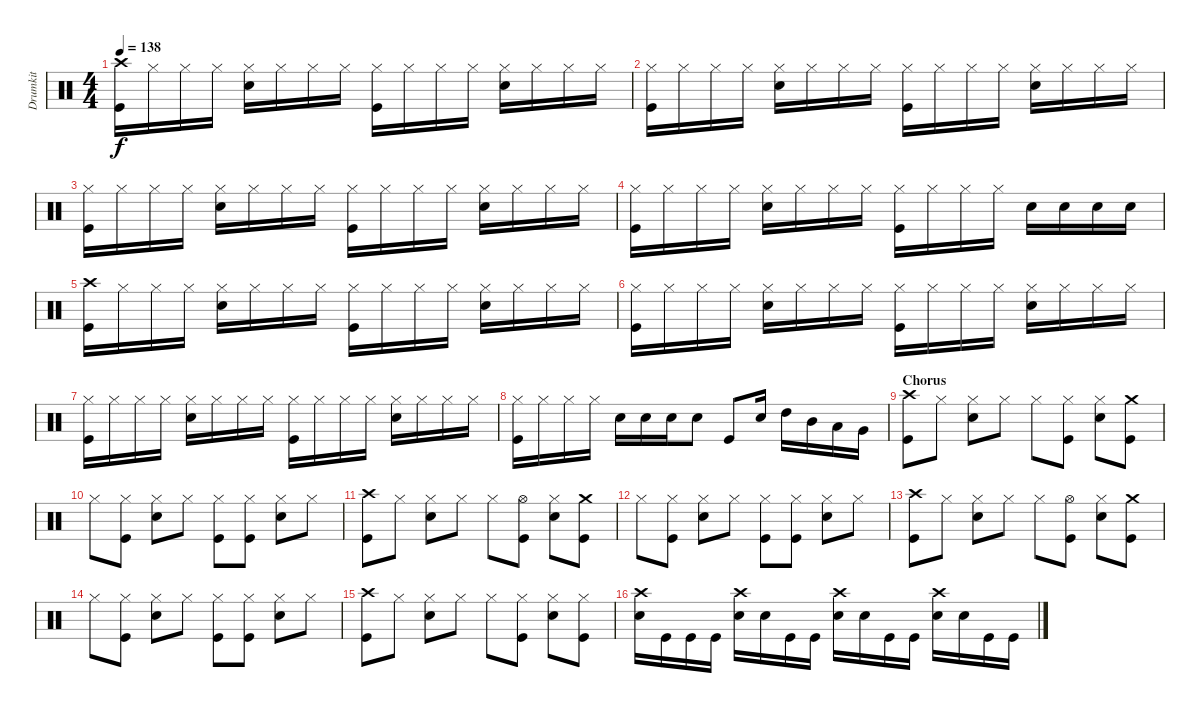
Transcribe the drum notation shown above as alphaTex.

\track ("Drumkit" "Drumkit") {instrument percussion}
\staff {score}
\articulation defaults
\ts (4 4)
\tempo 138
\clef neutral
\ks c
("Kick (hit)" "Crash high (hit)").16{dy f} "Hi-Hat (closed)".16 "Hi-Hat (closed)".16 "Hi-Hat (closed)".16 ("Snare (hit) 2" "Hi-Hat (closed)").16 "Hi-Hat (closed)".16 "Hi-Hat (closed)".16 "Hi-Hat (closed)".16 ("Kick (hit)" "Hi-Hat (closed)").16 "Hi-Hat (closed)".16 "Hi-Hat (closed)".16 "Hi-Hat (closed)".16 ("Snare (hit) 2" "Hi-Hat (closed)").16 "Hi-Hat (closed)".16 "Hi-Hat (closed)".16 "Hi-Hat (closed)".16 |
("Kick (hit)" "Hi-Hat (closed)").16 "Hi-Hat (closed)".16 "Hi-Hat (closed)".16 "Hi-Hat (closed)".16 ("Snare (hit) 2" "Hi-Hat (closed)").16 "Hi-Hat (closed)".16 "Hi-Hat (closed)".16 "Hi-Hat (closed)".16 ("Kick (hit)" "Hi-Hat (closed)").16 "Hi-Hat (closed)".16 "Hi-Hat (closed)".16 "Hi-Hat (closed)".16 ("Snare (hit) 2" "Hi-Hat (closed)").16 "Hi-Hat (closed)".16 "Hi-Hat (closed)".16 "Hi-Hat (closed)".16 |
("Kick (hit)" "Hi-Hat (closed)").16 "Hi-Hat (closed)".16 "Hi-Hat (closed)".16 "Hi-Hat (closed)".16 ("Snare (hit) 2" "Hi-Hat (closed)").16 "Hi-Hat (closed)".16 "Hi-Hat (closed)".16 "Hi-Hat (closed)".16 ("Kick (hit)" "Hi-Hat (closed)").16 "Hi-Hat (closed)".16 "Hi-Hat (closed)".16 "Hi-Hat (closed)".16 ("Snare (hit) 2" "Hi-Hat (closed)").16 "Hi-Hat (closed)".16 "Hi-Hat (closed)".16 "Hi-Hat (closed)".16 |
("Kick (hit)" "Hi-Hat (closed)").16 "Hi-Hat (closed)".16 "Hi-Hat (closed)".16 "Hi-Hat (closed)".16 ("Snare (hit) 2" "Hi-Hat (closed)").16 "Hi-Hat (closed)".16 "Hi-Hat (closed)".16 "Hi-Hat (closed)".16 ("Kick (hit)" "Hi-Hat (closed)").16 "Hi-Hat (closed)".16 "Hi-Hat (closed)".16 "Hi-Hat (closed)".16 "Snare (hit) 2".16 "Snare (hit) 2".16 "Snare (hit) 2".16 "Snare (hit) 2".16 |
("Kick (hit)" "Crash high (hit)").16 "Hi-Hat (closed)".16 "Hi-Hat (closed)".16 "Hi-Hat (closed)".16 ("Snare (hit) 2" "Hi-Hat (closed)").16 "Hi-Hat (closed)".16 "Hi-Hat (closed)".16 "Hi-Hat (closed)".16 ("Kick (hit)" "Hi-Hat (closed)").16 "Hi-Hat (closed)".16 "Hi-Hat (closed)".16 "Hi-Hat (closed)".16 ("Snare (hit) 2" "Hi-Hat (closed)").16 "Hi-Hat (closed)".16 "Hi-Hat (closed)".16 "Hi-Hat (closed)".16 |
("Kick (hit)" "Hi-Hat (closed)").16 "Hi-Hat (closed)".16 "Hi-Hat (closed)".16 "Hi-Hat (closed)".16 ("Snare (hit) 2" "Hi-Hat (closed)").16 "Hi-Hat (closed)".16 "Hi-Hat (closed)".16 "Hi-Hat (closed)".16 ("Kick (hit)" "Hi-Hat (closed)").16 "Hi-Hat (closed)".16 "Hi-Hat (closed)".16 "Hi-Hat (closed)".16 ("Snare (hit) 2" "Hi-Hat (closed)").16 "Hi-Hat (closed)".16 "Hi-Hat (closed)".16 "Hi-Hat (closed)".16 |
("Kick (hit)" "Hi-Hat (closed)").16 "Hi-Hat (closed)".16 "Hi-Hat (closed)".16 "Hi-Hat (closed)".16 ("Snare (hit) 2" "Hi-Hat (closed)").16 "Hi-Hat (closed)".16 "Hi-Hat (closed)".16 "Hi-Hat (closed)".16 ("Kick (hit)" "Hi-Hat (closed)").16 "Hi-Hat (closed)".16 "Hi-Hat (closed)".16 "Hi-Hat (closed)".16 ("Snare (hit) 2" "Hi-Hat (closed)").16 "Hi-Hat (closed)".16 "Hi-Hat (closed)".16 "Hi-Hat (closed)".16 |
("Kick (hit)" "Hi-Hat (closed)").16 "Hi-Hat (closed)".16 "Hi-Hat (closed)".16 "Hi-Hat (closed)".16 "Snare (hit) 2".16 "Snare (hit) 2".16 "Snare (hit) 2".16 "Snare (hit) 2".8 "Kick (hit)".8 "Snare (hit) 2".16 "High Tom (hit)".16 "Mid Tom (hit)".16 "Low Tom (hit)".16 "Very Low Tom (hit)".16 |
\section ("" "Chorus")
("Kick (hit)" "Crash high (hit)").8 "Hi-Hat (closed)".8 ("Snare (hit) 2" "Hi-Hat (closed)").8 "Hi-Hat (closed)".8 "Hi-Hat (closed)".8 ("Kick (hit)" "Hi-Hat (closed)").8 ("Snare (hit) 2" "Hi-Hat (closed)").8 ("Kick (hit)" "Crash medium (hit)").8 |
"Hi-Hat (closed)".8 ("Hi-Hat (closed)" "Kick (hit)").8 ("Hi-Hat (closed)" "Snare (hit) 2").8 "Hi-Hat (closed)".8 ("Hi-Hat (closed)" "Kick (hit)").8 ("Hi-Hat (closed)" "Kick (hit)").8 ("Snare (hit) 2" "Hi-Hat (closed)").8 "Hi-Hat (closed)".8 |
("Kick (hit)" "Crash high (hit)").8 "Hi-Hat (closed)".8 ("Snare (hit) 2" "Hi-Hat (closed)").8 "Hi-Hat (closed)".8 "Hi-Hat (closed)".8 ("Kick (hit)" "Hi-Hat (open)").8 ("Snare (hit) 2" "Hi-Hat (closed)").8 ("Kick (hit)" "Crash medium (hit)").8 |
"Hi-Hat (closed)".8 ("Hi-Hat (closed)" "Kick (hit)").8 ("Hi-Hat (closed)" "Snare (hit) 2").8 "Hi-Hat (closed)".8 ("Hi-Hat (closed)" "Kick (hit)").8 ("Hi-Hat (closed)" "Kick (hit)").8 ("Snare (hit) 2" "Hi-Hat (closed)").8 "Hi-Hat (closed)".8 |
("Kick (hit)" "Crash high (hit)").8 "Hi-Hat (closed)".8 ("Snare (hit) 2" "Hi-Hat (closed)").8 "Hi-Hat (closed)".8 "Hi-Hat (closed)".8 ("Kick (hit)" "Hi-Hat (open)").8 ("Snare (hit) 2" "Hi-Hat (closed)").8 ("Kick (hit)" "Crash medium (hit)").8 |
"Hi-Hat (closed)".8 ("Hi-Hat (closed)" "Kick (hit)").8 ("Hi-Hat (closed)" "Snare (hit) 2").8 "Hi-Hat (closed)".8 ("Hi-Hat (closed)" "Kick (hit)").8 ("Hi-Hat (closed)" "Kick (hit)").8 ("Snare (hit) 2" "Hi-Hat (closed)").8 "Hi-Hat (closed)".8 |
("Kick (hit)" "Crash high (hit)").8 "Hi-Hat (closed)".8 ("Snare (hit) 2" "Hi-Hat (closed)").8 "Hi-Hat (closed)".8 "Hi-Hat (closed)".8 ("Kick (hit)" "Hi-Hat (closed)").8 ("Snare (hit) 2" "Hi-Hat (closed)").8 ("Kick (hit)" "Hi-Hat (closed)").8 |
("Snare (hit) 2" "Crash high (hit)").16 "Kick (hit)".16 "Kick (hit)".16 "Kick (hit)".16 ("Snare (hit) 2" "Crash high (hit)").16 "Snare (hit) 2".16 "Kick (hit)".16 "Kick (hit)".16 ("Snare (hit) 2" "Crash high (hit)").16 "Snare (hit) 2".16 "Kick (hit)".16 "Kick (hit)".16 ("Snare (hit) 2" "Crash high (hit)").16 "Snare (hit) 2".16 "Kick (hit)".16 "Kick (hit)".16
